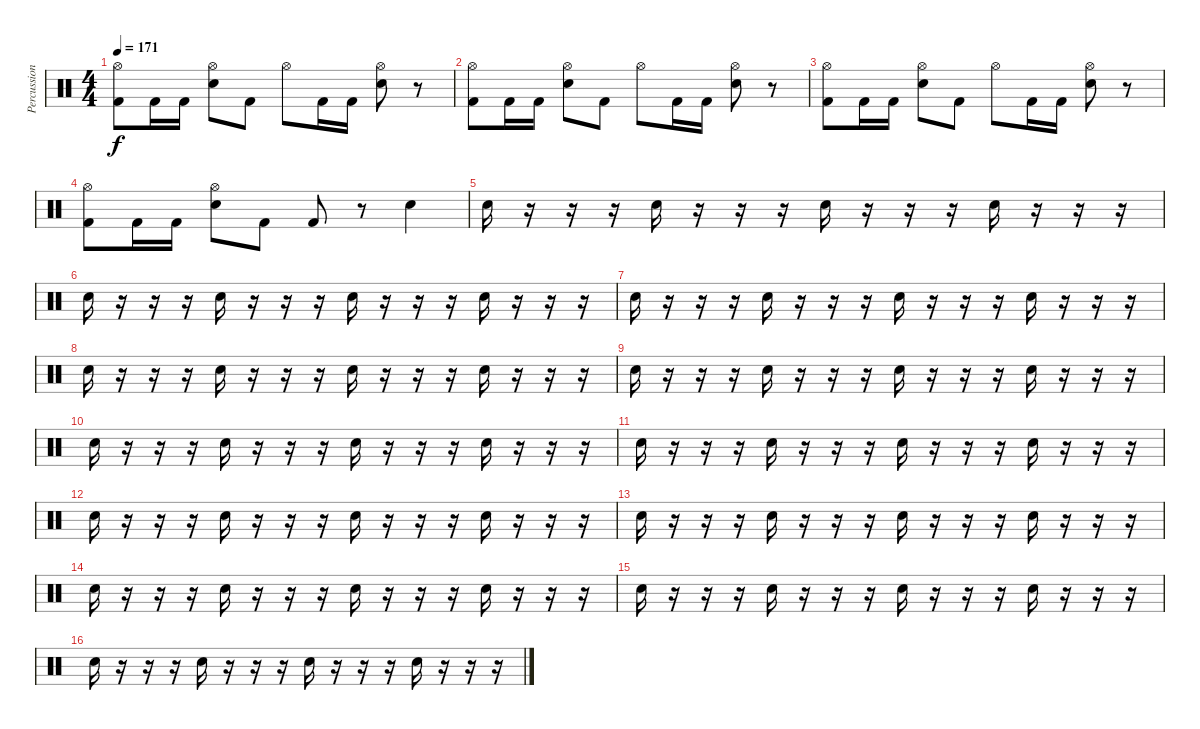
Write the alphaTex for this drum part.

\track ("Percussions" "Percussion") {instrument percussion}
\staff {score}
\articulation defaults
\ts (4 4)
\tempo 171
\clef neutral
\ks c
("Hi-Hat (open)" "Kick (hit) 2").8{dy f} "Kick (hit) 2".16 "Kick (hit) 2".16 ("Hi-Hat (open)" "Electric Snare (hit)").8 "Kick (hit) 2".8 "Hi-Hat (open)".8 "Kick (hit) 2".16 "Kick (hit) 2".16 ("Hi-Hat (open)" "Electric Snare (hit)").8 r.8 |
("Hi-Hat (open)" "Kick (hit) 2").8 "Kick (hit) 2".16 "Kick (hit) 2".16 ("Hi-Hat (open)" "Electric Snare (hit)").8 "Kick (hit) 2".8 "Hi-Hat (open)".8 "Kick (hit) 2".16 "Kick (hit) 2".16 ("Hi-Hat (open)" "Electric Snare (hit)").8 r.8 |
("Hi-Hat (open)" "Kick (hit) 2").8 "Kick (hit) 2".16 "Kick (hit) 2".16 ("Hi-Hat (open)" "Electric Snare (hit)").8 "Kick (hit) 2".8 "Hi-Hat (open)".8 "Kick (hit) 2".16 "Kick (hit) 2".16 ("Hi-Hat (open)" "Electric Snare (hit)").8 r.8 |
("Hi-Hat (open)" "Kick (hit) 2").8 "Kick (hit) 2".16 "Kick (hit) 2".16 ("Hi-Hat (open)" "Electric Snare (hit)").8 "Kick (hit) 2".8 "Kick (hit) 2".8 r.8 "Electric Snare (hit)".4 |
"Electric Snare (hit)".16 r.16 r.16 r.16 "Electric Snare (hit)".16 r.16 r.16 r.16 "Electric Snare (hit)".16 r.16 r.16 r.16 "Electric Snare (hit)".16 r.16 r.16 r.16 |
"Electric Snare (hit)".16 r.16 r.16 r.16 "Electric Snare (hit)".16 r.16 r.16 r.16 "Electric Snare (hit)".16 r.16 r.16 r.16 "Electric Snare (hit)".16 r.16 r.16 r.16 |
"Electric Snare (hit)".16 r.16 r.16 r.16 "Electric Snare (hit)".16 r.16 r.16 r.16 "Electric Snare (hit)".16 r.16 r.16 r.16 "Electric Snare (hit)".16 r.16 r.16 r.16 |
"Electric Snare (hit)".16 r.16 r.16 r.16 "Electric Snare (hit)".16 r.16 r.16 r.16 "Electric Snare (hit)".16 r.16 r.16 r.16 "Electric Snare (hit)".16 r.16 r.16 r.16 |
"Electric Snare (hit)".16 r.16 r.16 r.16 "Electric Snare (hit)".16 r.16 r.16 r.16 "Electric Snare (hit)".16 r.16 r.16 r.16 "Electric Snare (hit)".16 r.16 r.16 r.16 |
"Electric Snare (hit)".16 r.16 r.16 r.16 "Electric Snare (hit)".16 r.16 r.16 r.16 "Electric Snare (hit)".16 r.16 r.16 r.16 "Electric Snare (hit)".16 r.16 r.16 r.16 |
"Electric Snare (hit)".16 r.16 r.16 r.16 "Electric Snare (hit)".16 r.16 r.16 r.16 "Electric Snare (hit)".16 r.16 r.16 r.16 "Electric Snare (hit)".16 r.16 r.16 r.16 |
"Electric Snare (hit)".16 r.16 r.16 r.16 "Electric Snare (hit)".16 r.16 r.16 r.16 "Electric Snare (hit)".16 r.16 r.16 r.16 "Electric Snare (hit)".16 r.16 r.16 r.16 |
"Electric Snare (hit)".16 r.16 r.16 r.16 "Electric Snare (hit)".16 r.16 r.16 r.16 "Electric Snare (hit)".16 r.16 r.16 r.16 "Electric Snare (hit)".16 r.16 r.16 r.16 |
"Electric Snare (hit)".16 r.16 r.16 r.16 "Electric Snare (hit)".16 r.16 r.16 r.16 "Electric Snare (hit)".16 r.16 r.16 r.16 "Electric Snare (hit)".16 r.16 r.16 r.16 |
"Electric Snare (hit)".16 r.16 r.16 r.16 "Electric Snare (hit)".16 r.16 r.16 r.16 "Electric Snare (hit)".16 r.16 r.16 r.16 "Electric Snare (hit)".16 r.16 r.16 r.16 |
"Electric Snare (hit)".16 r.16 r.16 r.16 "Electric Snare (hit)".16 r.16 r.16 r.16 "Electric Snare (hit)".16 r.16 r.16 r.16 "Electric Snare (hit)".16 r.16 r.16 r.16
